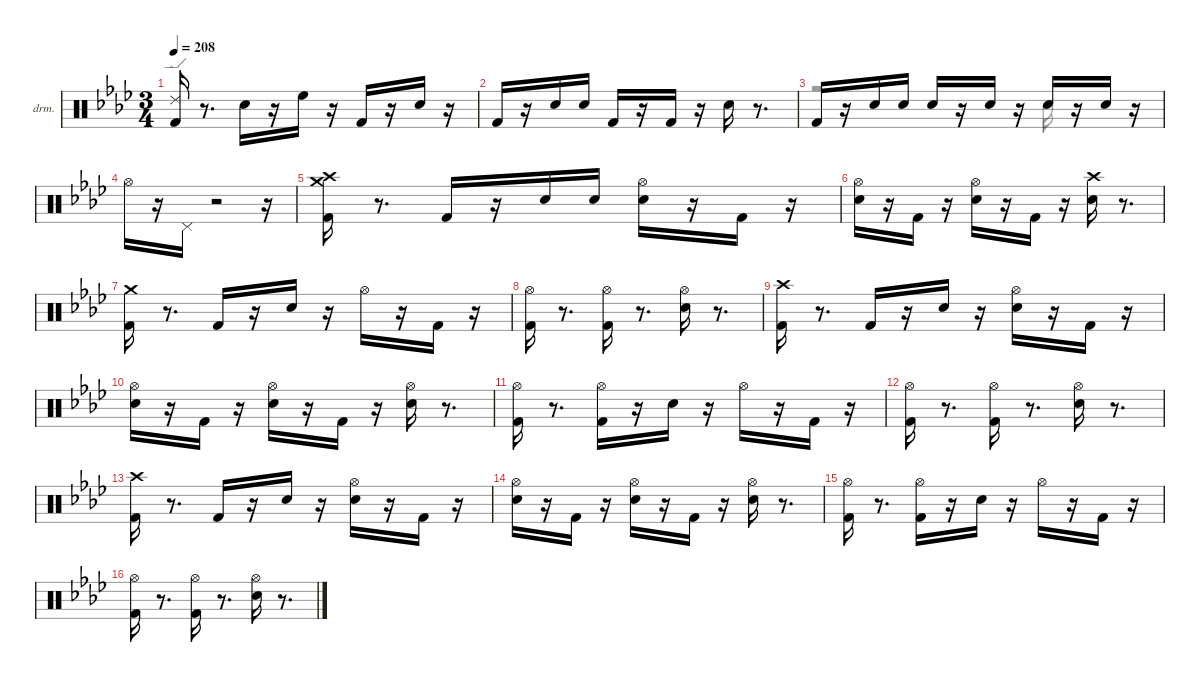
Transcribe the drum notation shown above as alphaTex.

\hideDynamics
\bracketExtendMode nobrackets
\firstSystemTrackNameOrientation horizontal
\otherSystemsTrackNameOrientation horizontal
\track ("EZdrummer 3" "drm.") {instrument percussion}
\staff {score}
\articulation defaults
\voice
\ts (3 4)
\tempo 208
\clef neutral
\ks fminor
("Kick (hit) 2"{acc forcenatural} "Ride (edge) 2"{acc forcenatural}).16{dy ff beam Up} r.8{d beam Up} "Snare (hit) 2"{acc forcenatural}.16{dy mf beam Down} r.16{beam Down} "High Floor Tom (hit)"{acc forcenatural}.16{dy ff beam Down} r.16{beam Down} "Kick (hit) 2"{acc forcenatural}.16{dy f beam Up} r.16{beam Up} "Snare (hit) 2"{acc forcenatural}.16{dy ff beam Down} r.16{beam Down} |
"Kick (hit) 2"{acc forcenatural}.16{beam Up} r.16{beam Up} "Snare (hit) 2"{acc forcenatural}.16{dy pp beam Down} "Snare (hit) 2"{acc forcenatural}.16{dy ppp beam Down} "Kick (hit) 2"{acc forcenatural}.16{dy mp beam Up} r.16{beam Up} "Kick (hit) 2"{acc forcenatural}.16{dy f beam Up} r.16{beam Up} "Snare (hit) 2"{acc forcenatural}.16{dy ff beam Down} r.8{d beam Down} |
"Kick (hit) 2"{acc forcenatural}.16{beam Up} r.16{beam Up} "Snare (hit) 2"{acc forcenatural}.16{dy p beam Up} "Snare (hit) 2"{acc forcenatural}.16{dy pp beam Up} "Snare (hit) 2"{acc forcenatural}.16{dy ff beam Up} r.16{beam Up} "Snare (hit) 2"{acc forcenatural}.16{dy mf beam Up} r.16{beam Up} "Snare (hit) 2"{acc forcenatural}.16{dy p beam Up} r.16{beam Up} "Snare (hit) 2"{acc forcenatural}.16{dy fff beam Up} r.16{beam Up} |
"Hi-Hat (open)"{acc b}.16{beam Down} r.16{beam Down} "Pedal Hi-Hat (hit)"{acc b}.16{dy ff beam Up} r.2{beam Up} r.16{beam Up} |
("Crash medium (hit)"{acc forcenatural} "Kick (hit) 2"{acc forcenatural} "Crash high (hit)"{acc b}).16{dy fff beam Down} r.8{d beam Down} "Kick (hit) 2"{acc forcenatural}.16{dy f beam Up} r.16{beam Up} "Snare (hit) 2"{acc forcenatural}.16{dy mp beam Down} "Snare (hit) 2"{acc forcenatural}.16{beam Down} ("Snare (hit) 2"{acc forcenatural} "Hi-Hat (open)"{acc b}).16{dy ff beam Down} r.16{beam Down} "Kick (hit) 2"{acc forcenatural}.16{beam Up} r.16{beam Up} |
("Snare (hit) 2"{acc forcenatural} "Hi-Hat (open)"{acc b}).16{beam Down} r.16{beam Down} "Kick (hit) 2"{acc forcenatural}.16{beam Up} r.16{beam Up} ("Snare (hit) 2"{acc forcenatural} "Hi-Hat (open)"{acc b}).16{beam Down} r.16{beam Down} "Kick (hit) 2"{acc forcenatural}.16{beam Up} r.16{beam Up} ("Snare (hit) 2"{acc forcenatural} "Crash high (hit)"{acc b}).16{dy f beam Down} r.8{d beam Down} |
("Kick (hit) 2"{acc forcenatural} "Crash medium (hit)"{acc forcenatural}).16{dy ff beam Down} r.8{d beam Down} "Kick (hit) 2"{acc forcenatural}.16{dy f beam Up} r.16{beam Up} "Snare (hit) 2"{acc forcenatural}.16{dy ff beam Down} r.16{beam Down} "Hi-Hat (open)"{acc b}.16{dy f beam Down} r.16{beam Down} "Kick (hit) 2"{acc forcenatural}.16{beam Up} r.16{beam Up} |
("Kick (hit) 2"{acc forcenatural} "Hi-Hat (open)"{acc b}).16{dy ff beam Down} r.8{d beam Down} ("Kick (hit) 2"{acc forcenatural} "Hi-Hat (open)"{acc b}).16{beam Down} r.8{d beam Down} ("Snare (hit) 2"{acc forcenatural} "Hi-Hat (open)"{acc b}).16{beam Down} r.8{d beam Down} |
("Kick (hit) 2"{acc forcenatural} "Crash high (hit)"{acc b}).16{beam Down} r.8{d beam Down} "Kick (hit) 2"{acc forcenatural}.16{dy f beam Up} r.16{beam Up} "Snare (hit) 2"{acc forcenatural}.16{dy mp beam Down} r.16{beam Down} ("Snare (hit) 2"{acc forcenatural} "Hi-Hat (open)"{acc b}).16{dy ff beam Down} r.16{beam Down} "Kick (hit) 2"{acc forcenatural}.16{beam Up} r.16{beam Up} |
("Snare (hit) 2"{acc forcenatural} "Hi-Hat (open)"{acc b}).16{beam Down} r.16{beam Down} "Kick (hit) 2"{acc forcenatural}.16{beam Up} r.16{beam Up} ("Snare (hit) 2"{acc forcenatural} "Hi-Hat (open)"{acc b}).16{beam Down} r.16{beam Down} "Kick (hit) 2"{acc forcenatural}.16{beam Up} r.16{beam Up} ("Snare (hit) 2"{acc forcenatural} "Hi-Hat (open)"{acc b}).16{beam Down} r.8{d beam Down} |
("Kick (hit) 2"{acc forcenatural} "Hi-Hat (open)"{acc b}).16{beam Down} r.8{d beam Down} ("Kick (hit) 2"{acc forcenatural} "Hi-Hat (open)"{acc b}).16{dy f beam Down} r.16{beam Down} "Snare (hit) 2"{acc forcenatural}.16{dy ff beam Down} r.16{beam Down} "Hi-Hat (open)"{acc b}.16{dy f beam Down} r.16{beam Down} "Kick (hit) 2"{acc forcenatural}.16{beam Up} r.16{beam Up} |
("Kick (hit) 2"{acc forcenatural} "Hi-Hat (open)"{acc b}).16{dy ff beam Down} r.8{d beam Down} ("Kick (hit) 2"{acc forcenatural} "Hi-Hat (open)"{acc b}).16{dy f beam Down} r.8{d beam Down} ("Snare (hit) 2"{acc forcenatural} "Hi-Hat (open)"{acc b}).16{dy ff beam Down} r.8{d beam Down} |
("Kick (hit) 2"{acc forcenatural} "Crash high (hit)"{acc b}).16{beam Down} r.8{d beam Down} "Kick (hit) 2"{acc forcenatural}.16{dy f beam Up} r.16{beam Up} "Snare (hit) 2"{acc forcenatural}.16{dy mp beam Down} r.16{beam Down} ("Snare (hit) 2"{acc forcenatural} "Hi-Hat (open)"{acc b}).16{dy ff beam Down} r.16{beam Down} "Kick (hit) 2"{acc forcenatural}.16{beam Up} r.16{beam Up} |
("Snare (hit) 2"{acc forcenatural} "Hi-Hat (open)"{acc b}).16{beam Down} r.16{beam Down} "Kick (hit) 2"{acc forcenatural}.16{beam Up} r.16{beam Up} ("Snare (hit) 2"{acc forcenatural} "Hi-Hat (open)"{acc b}).16{beam Down} r.16{beam Down} "Kick (hit) 2"{acc forcenatural}.16{beam Up} r.16{beam Up} ("Snare (hit) 2"{acc forcenatural} "Hi-Hat (open)"{acc b}).16{beam Down} r.8{d beam Down} |
("Kick (hit) 2"{acc forcenatural} "Hi-Hat (open)"{acc b}).16{beam Down} r.8{d beam Down} ("Kick (hit) 2"{acc forcenatural} "Hi-Hat (open)"{acc b}).16{dy f beam Down} r.16{beam Down} "Snare (hit) 2"{acc forcenatural}.16{dy ff beam Down} r.16{beam Down} "Hi-Hat (open)"{acc b}.16{dy f beam Down} r.16{beam Down} "Kick (hit) 2"{acc forcenatural}.16{beam Up} r.16{beam Up} |
("Kick (hit) 2"{acc forcenatural} "Hi-Hat (open)"{acc b}).16{dy ff beam Down} r.8{d beam Down} ("Kick (hit) 2"{acc forcenatural} "Hi-Hat (open)"{acc b}).16{beam Down} r.8{d beam Down} ("Snare (hit) 2"{acc forcenatural} "Hi-Hat (open)"{acc b}).16{beam Down} r.8{d beam Down}
\voice
\clef neutral
\ottava regular
\simile none
\ks fminor
|
|
r.2{beam Down} "Snare (hit) 2"{acc forcenatural}.16{beam Down} |
|
|
|
|
|
|
|
|
|
|
|
|
